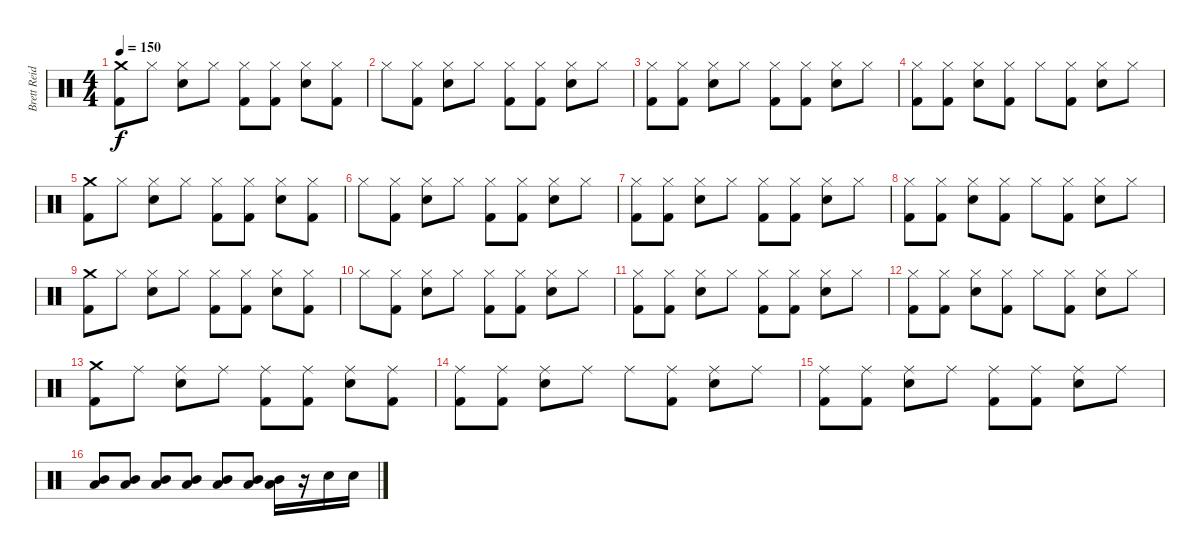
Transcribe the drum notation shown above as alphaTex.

\track ("Brett Reid" "Brett Reid") {instrument percussion}
\staff {score}
\articulation defaults
\ts (4 4)
\tempo 150
\clef neutral
\ks c
("Crash medium (hit)" "Kick (hit) 2").8{dy f} "Hi-Hat (closed)".8 ("Hi-Hat (closed)" "Snare (hit) 2").8 "Hi-Hat (closed)".8 ("Hi-Hat (closed)" "Kick (hit) 2").8 ("Hi-Hat (closed)" "Kick (hit) 2").8 ("Hi-Hat (closed)" "Snare (hit) 2").8 ("Hi-Hat (closed)" "Kick (hit) 2").8 |
"Hi-Hat (closed)".8 ("Hi-Hat (closed)" "Kick (hit) 2").8 ("Hi-Hat (closed)" "Snare (hit) 2").8 "Hi-Hat (closed)".8 ("Hi-Hat (closed)" "Kick (hit) 2").8 ("Hi-Hat (closed)" "Kick (hit) 2").8 ("Hi-Hat (closed)" "Snare (hit) 2").8 "Hi-Hat (closed)".8 |
("Hi-Hat (closed)" "Kick (hit) 2").8 ("Hi-Hat (closed)" "Kick (hit) 2").8 ("Hi-Hat (closed)" "Snare (hit) 2").8 "Hi-Hat (closed)".8 ("Hi-Hat (closed)" "Kick (hit) 2").8 ("Hi-Hat (closed)" "Kick (hit) 2").8 ("Hi-Hat (closed)" "Snare (hit) 2").8 "Hi-Hat (closed)".8 |
("Hi-Hat (closed)" "Kick (hit) 2").8 ("Hi-Hat (closed)" "Kick (hit) 2").8 ("Hi-Hat (closed)" "Snare (hit) 2").8 ("Hi-Hat (closed)" "Kick (hit) 2").8 "Hi-Hat (closed)".8 ("Hi-Hat (closed)" "Kick (hit) 2").8 ("Hi-Hat (closed)" "Snare (hit) 2").8 "Hi-Hat (closed)".8 |
("Crash medium (hit)" "Kick (hit) 2").8 "Hi-Hat (closed)".8 ("Hi-Hat (closed)" "Snare (hit) 2").8 "Hi-Hat (closed)".8 ("Hi-Hat (closed)" "Kick (hit) 2").8 ("Hi-Hat (closed)" "Kick (hit) 2").8 ("Hi-Hat (closed)" "Snare (hit) 2").8 ("Hi-Hat (closed)" "Kick (hit) 2").8 |
"Hi-Hat (closed)".8 ("Hi-Hat (closed)" "Kick (hit) 2").8 ("Hi-Hat (closed)" "Snare (hit) 2").8 "Hi-Hat (closed)".8 ("Hi-Hat (closed)" "Kick (hit) 2").8 ("Hi-Hat (closed)" "Kick (hit) 2").8 ("Hi-Hat (closed)" "Snare (hit) 2").8 "Hi-Hat (closed)".8 |
("Hi-Hat (closed)" "Kick (hit) 2").8 ("Hi-Hat (closed)" "Kick (hit) 2").8 ("Hi-Hat (closed)" "Snare (hit) 2").8 "Hi-Hat (closed)".8 ("Hi-Hat (closed)" "Kick (hit) 2").8 ("Hi-Hat (closed)" "Kick (hit) 2").8 ("Hi-Hat (closed)" "Snare (hit) 2").8 "Hi-Hat (closed)".8 |
("Hi-Hat (closed)" "Kick (hit) 2").8 ("Hi-Hat (closed)" "Kick (hit) 2").8 ("Hi-Hat (closed)" "Snare (hit) 2").8 ("Hi-Hat (closed)" "Kick (hit) 2").8 "Hi-Hat (closed)".8 ("Hi-Hat (closed)" "Kick (hit) 2").8 ("Hi-Hat (closed)" "Snare (hit) 2").8 "Hi-Hat (closed)".8 |
("Crash medium (hit)" "Kick (hit) 2").8 "Hi-Hat (closed)".8 ("Hi-Hat (closed)" "Snare (hit) 2").8 "Hi-Hat (closed)".8 ("Hi-Hat (closed)" "Kick (hit) 2").8 ("Hi-Hat (closed)" "Kick (hit) 2").8 ("Hi-Hat (closed)" "Snare (hit) 2").8 ("Hi-Hat (closed)" "Kick (hit) 2").8 |
"Hi-Hat (closed)".8 ("Hi-Hat (closed)" "Kick (hit) 2").8 ("Hi-Hat (closed)" "Snare (hit) 2").8 "Hi-Hat (closed)".8 ("Hi-Hat (closed)" "Kick (hit) 2").8 ("Hi-Hat (closed)" "Kick (hit) 2").8 ("Hi-Hat (closed)" "Snare (hit) 2").8 "Hi-Hat (closed)".8 |
("Hi-Hat (closed)" "Kick (hit) 2").8 ("Hi-Hat (closed)" "Kick (hit) 2").8 ("Hi-Hat (closed)" "Snare (hit) 2").8 "Hi-Hat (closed)".8 ("Hi-Hat (closed)" "Kick (hit) 2").8 ("Hi-Hat (closed)" "Kick (hit) 2").8 ("Hi-Hat (closed)" "Snare (hit) 2").8 "Hi-Hat (closed)".8 |
("Hi-Hat (closed)" "Kick (hit) 2").8 ("Hi-Hat (closed)" "Kick (hit) 2").8 ("Hi-Hat (closed)" "Snare (hit) 2").8 ("Hi-Hat (closed)" "Kick (hit) 2").8 "Hi-Hat (closed)".8 ("Hi-Hat (closed)" "Kick (hit) 2").8 ("Hi-Hat (closed)" "Snare (hit) 2").8 "Hi-Hat (closed)".8 |
("Crash medium (hit)" "Kick (hit) 2").8 "Ride (middle)".8 ("Ride (middle)" "Snare (hit) 2").8 "Ride (middle)".8 ("Ride (middle)" "Kick (hit) 2").8 ("Ride (middle)" "Kick (hit) 2").8 ("Ride (middle)" "Snare (hit) 2").8 ("Ride (middle)" "Kick (hit) 2").8 |
("Ride (middle)" "Kick (hit) 2").8 ("Ride (middle)" "Kick (hit) 2").8 ("Ride (middle)" "Snare (hit) 2").8 "Ride (middle)".8 "Ride (middle)".8 ("Ride (middle)" "Kick (hit) 2").8 ("Ride (middle)" "Snare (hit) 2").8 "Ride (middle)".8 |
("Ride (middle)" "Kick (hit) 2").8 ("Ride (middle)" "Kick (hit) 2").8 ("Ride (middle)" "Snare (hit) 2").8 "Ride (middle)".8 ("Ride (middle)" "Kick (hit) 2").8 ("Ride (middle)" "Kick (hit) 2").8 ("Ride (middle)" "Snare (hit) 2").8 "Ride (middle)".8 |
("Mid Tom (hit)" "Low Floor Tom (hit)").8 ("Mid Tom (hit)" "Low Floor Tom (hit)").8 ("Mid Tom (hit)" "Low Floor Tom (hit)").8 ("Mid Tom (hit)" "Low Floor Tom (hit)").8 ("Mid Tom (hit)" "Low Floor Tom (hit)").8 ("Mid Tom (hit)" "Low Floor Tom (hit)").8 ("Mid Tom (hit)" "Low Floor Tom (hit)").16 r.16 "Snare (hit) 2".16 "Snare (hit) 2".16
